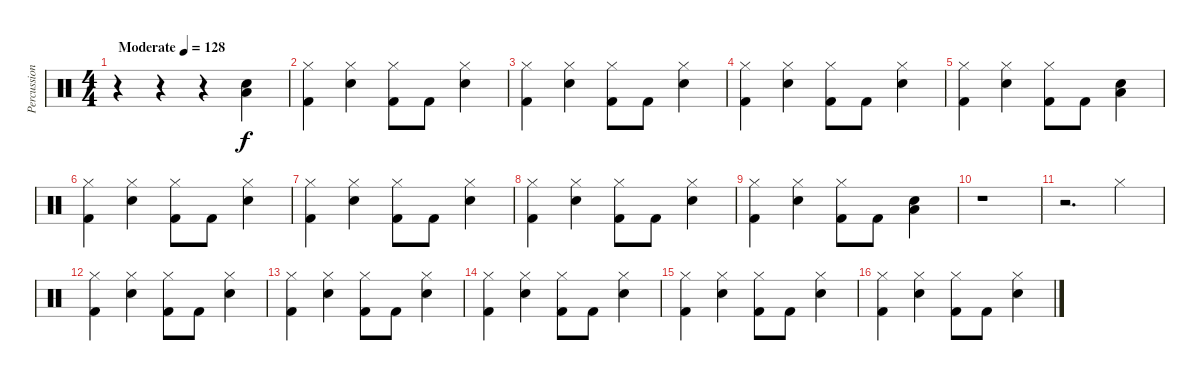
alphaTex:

\track ("Percussion" "Percussion") {instrument percussion}
\staff {score}
\articulation defaults
\ts (4 4)
\tempo (128 "Moderate")
\clef neutral
\ks c
r.4{dy f} r.4 r.4 ("Low Tom (hit)" "Snare (hit) 2").4 |
("Hi-Hat (closed)" "Kick (hit) 2").4 ("Hi-Hat (closed)" "Snare (hit) 2").4 ("Hi-Hat (closed)" "Kick (hit) 2").8 "Kick (hit) 2".8 ("Hi-Hat (closed)" "Snare (hit) 2").4 |
("Hi-Hat (closed)" "Kick (hit) 2").4 ("Hi-Hat (closed)" "Snare (hit) 2").4 ("Hi-Hat (closed)" "Kick (hit) 2").8 "Kick (hit) 2".8 ("Hi-Hat (closed)" "Snare (hit) 2").4 |
("Hi-Hat (closed)" "Kick (hit) 2").4 ("Hi-Hat (closed)" "Snare (hit) 2").4 ("Hi-Hat (closed)" "Kick (hit) 2").8 "Kick (hit) 2".8 ("Hi-Hat (closed)" "Snare (hit) 2").4 |
("Hi-Hat (closed)" "Kick (hit) 2").4 ("Hi-Hat (closed)" "Snare (hit) 2").4 ("Hi-Hat (closed)" "Kick (hit) 2").8 "Kick (hit) 2".8 ("Low Tom (hit)" "Snare (hit) 2").4 |
("Hi-Hat (closed)" "Kick (hit) 2").4 ("Hi-Hat (closed)" "Snare (hit) 2").4 ("Hi-Hat (closed)" "Kick (hit) 2").8 "Kick (hit) 2".8 ("Hi-Hat (closed)" "Snare (hit) 2").4 |
("Hi-Hat (closed)" "Kick (hit) 2").4 ("Hi-Hat (closed)" "Snare (hit) 2").4 ("Hi-Hat (closed)" "Kick (hit) 2").8 "Kick (hit) 2".8 ("Hi-Hat (closed)" "Snare (hit) 2").4 |
("Hi-Hat (closed)" "Kick (hit) 2").4 ("Hi-Hat (closed)" "Snare (hit) 2").4 ("Hi-Hat (closed)" "Kick (hit) 2").8 "Kick (hit) 2".8 ("Hi-Hat (closed)" "Snare (hit) 2").4 |
("Hi-Hat (closed)" "Kick (hit) 2").4 ("Hi-Hat (closed)" "Snare (hit) 2").4 ("Hi-Hat (closed)" "Kick (hit) 2").8 "Kick (hit) 2".8 ("Low Tom (hit)" "Snare (hit) 2").4 |
r.1 |
r.2{d} "Hi-Hat (closed)".4 |
("Hi-Hat (closed)" "Kick (hit) 2").4 ("Hi-Hat (closed)" "Snare (hit) 2").4 ("Hi-Hat (closed)" "Kick (hit) 2").8 "Kick (hit) 2".8 ("Hi-Hat (closed)" "Snare (hit) 2").4 |
("Hi-Hat (closed)" "Kick (hit) 2").4 ("Hi-Hat (closed)" "Snare (hit) 2").4 ("Hi-Hat (closed)" "Kick (hit) 2").8 "Kick (hit) 2".8 ("Hi-Hat (closed)" "Snare (hit) 2").4 |
("Hi-Hat (closed)" "Kick (hit) 2").4 ("Hi-Hat (closed)" "Snare (hit) 2").4 ("Hi-Hat (closed)" "Kick (hit) 2").8 "Kick (hit) 2".8 ("Hi-Hat (closed)" "Snare (hit) 2").4 |
("Hi-Hat (closed)" "Kick (hit) 2").4 ("Hi-Hat (closed)" "Snare (hit) 2").4 ("Hi-Hat (closed)" "Kick (hit) 2").8 "Kick (hit) 2".8 ("Hi-Hat (closed)" "Snare (hit) 2").4 |
("Hi-Hat (closed)" "Kick (hit) 2").4 ("Hi-Hat (closed)" "Snare (hit) 2").4 ("Hi-Hat (closed)" "Kick (hit) 2").8 "Kick (hit) 2".8 ("Hi-Hat (closed)" "Snare (hit) 2").4
